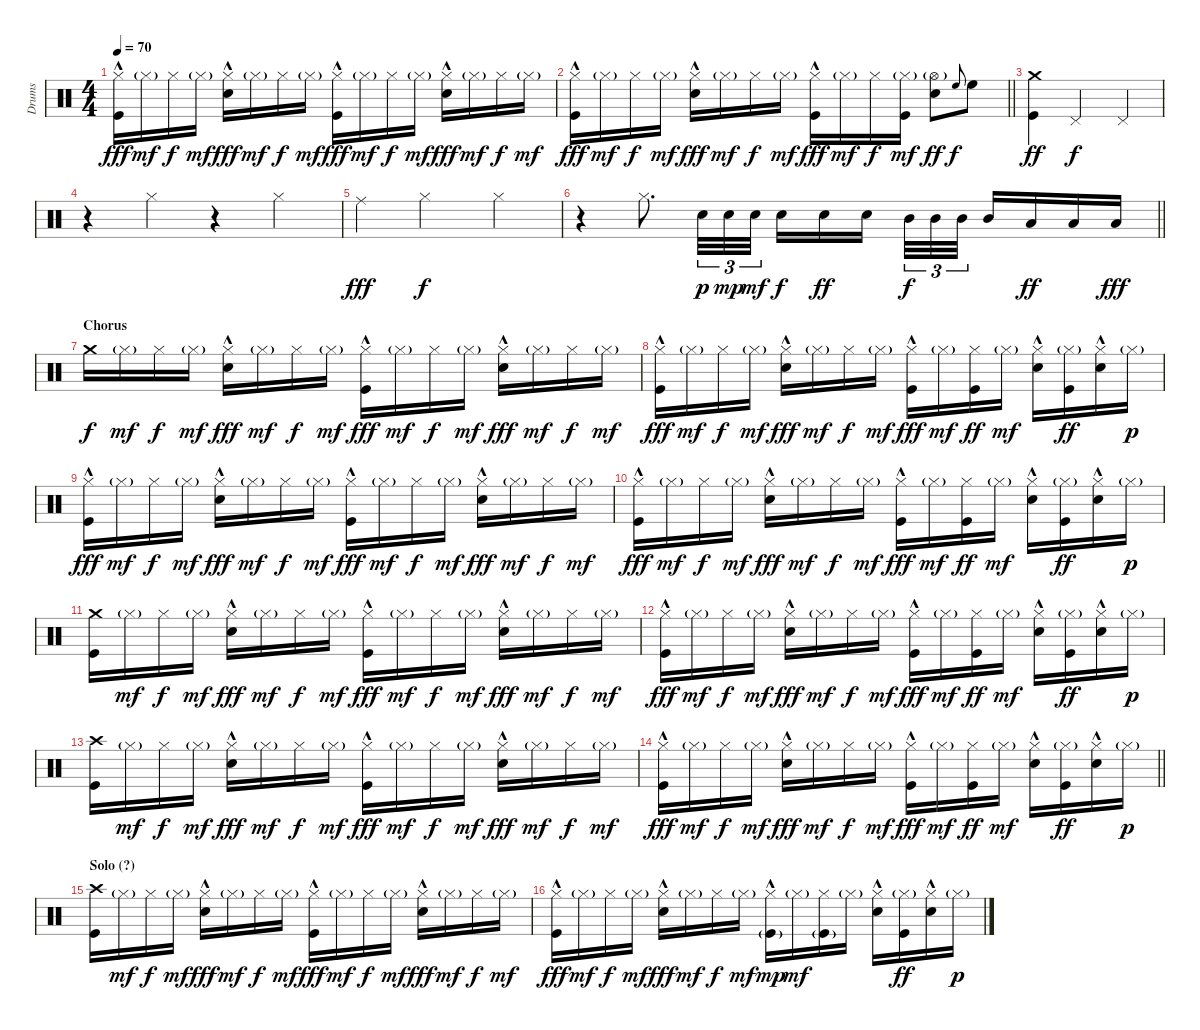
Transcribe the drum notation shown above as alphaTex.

\track ("Drums" "Drums") {instrument percussion}
\staff {score}
\articulation defaults
\ts (4 4)
\tempo 70
\clef neutral
\ks c
("Hi-Hat (closed)"{hac} "Kick (hit)").16{dy fff} "Hi-Hat (closed)"{g}.16{dy mf} "Hi-Hat (closed)".16{dy f} "Hi-Hat (closed)"{g}.16{dy mf} ("Hi-Hat (closed)"{hac} "Electric Snare (hit)").16{dy fff} "Hi-Hat (closed)"{g}.16{dy mf} "Hi-Hat (closed)".16{dy f} "Hi-Hat (closed)"{g}.16{dy mf} ("Hi-Hat (closed)"{hac} "Kick (hit)").16{dy fff} "Hi-Hat (closed)"{g}.16{dy mf} "Hi-Hat (closed)".16{dy f} "Hi-Hat (closed)"{g}.16{dy mf} ("Hi-Hat (closed)"{hac} "Electric Snare (hit)").16{dy fff} "Hi-Hat (closed)"{g}.16{dy mf} "Hi-Hat (closed)".16{dy f} "Hi-Hat (closed)"{g}.16{dy mf} |
\barLineRight lightlight
("Hi-Hat (closed)"{hac} "Kick (hit)").16{dy fff} "Hi-Hat (closed)"{g}.16{dy mf} "Hi-Hat (closed)".16{dy f} "Hi-Hat (closed)"{g}.16{dy mf} ("Hi-Hat (closed)"{hac} "Electric Snare (hit)").16{dy fff} "Hi-Hat (closed)"{g}.16{dy mf} "Hi-Hat (closed)".16{dy f} "Hi-Hat (closed)"{g}.16{dy mf} ("Hi-Hat (closed)"{hac} "Kick (hit)").16{dy fff} "Hi-Hat (closed)"{g}.16{dy mf} "Hi-Hat (closed)".16{dy f} ("Hi-Hat (closed)"{g} "Kick (hit)").16{dy mf volume 16} ("Hi-Hat (open)"{g} "Electric Snare (hit)").8{dy ff} "High Floor Tom (hit)".8{gr onbeat dy f} "High Floor Tom (hit)".8 |
\section ("" "")
("Crash medium (hit)" "Kick (hit)").4{dy ff volume 14} "Pedal Hi-Hat (hit)".2{dy f} "Pedal Hi-Hat (hit)".4 |
r.4 "Hi-Hat (closed)".4 r.4 "Hi-Hat (closed)".4 |
"Ride (middle)".4{dy fff} "Hi-Hat (closed)".2{dy f} "Hi-Hat (closed)".4 |
\barLineRight lightlight
r.4 "Hi-Hat (closed)".8{d} "Electric Snare (hit)".32{tu (3 2) dy p volume 16} "Electric Snare (hit)".32{tu (3 2) dy mp} "Electric Snare (hit)".32{tu (3 2) dy mf} "Electric Snare (hit)".16{dy f} "Electric Snare (hit)".16{dy ff} "Electric Snare (hit)".16{beam splitsecondary} "Mid Tom (hit)".32{tu (3 2) dy f} "Mid Tom (hit)".32{tu (3 2)} "Mid Tom (hit)".32{tu (3 2)} "Mid Tom (hit)".16 "Low Tom (hit)".16{dy ff} "Low Tom (hit)".16 "Low Tom (hit)".16{dy fff} |
\section ("" "Chorus")
"Crash medium (hit)".16{dy f volume 14} "Hi-Hat (closed)"{g}.16{dy mf} "Hi-Hat (closed)".16{dy f} "Hi-Hat (closed)"{g}.16{dy mf} ("Hi-Hat (closed)"{hac} "Electric Snare (hit)").16{dy fff} "Hi-Hat (closed)"{g}.16{dy mf} "Hi-Hat (closed)".16{dy f} "Hi-Hat (closed)"{g}.16{dy mf} ("Hi-Hat (closed)"{hac} "Kick (hit)").16{dy fff} "Hi-Hat (closed)"{g}.16{dy mf} "Hi-Hat (closed)".16{dy f} "Hi-Hat (closed)"{g}.16{dy mf} ("Hi-Hat (closed)"{hac} "Electric Snare (hit)").16{dy fff} "Hi-Hat (closed)"{g}.16{dy mf} "Hi-Hat (closed)".16{dy f} "Hi-Hat (closed)"{g}.16{dy mf} |
("Hi-Hat (closed)"{hac} "Kick (hit)").16{dy fff} "Hi-Hat (closed)"{g}.16{dy mf} "Hi-Hat (closed)".16{dy f} "Hi-Hat (closed)"{g}.16{dy mf} ("Hi-Hat (closed)"{hac} "Electric Snare (hit)").16{dy fff} "Hi-Hat (closed)"{g}.16{dy mf} "Hi-Hat (closed)".16{dy f} "Hi-Hat (closed)"{g}.16{dy mf} ("Hi-Hat (closed)"{hac} "Kick (hit)").16{dy fff} "Hi-Hat (closed)"{g}.16{dy mf} ("Hi-Hat (closed)" "Kick (hit)").16{dy ff} "Hi-Hat (closed)"{g}.16{dy mf} ("Hi-Hat (closed)"{hac} "Electric Snare (hit)").16 ("Hi-Hat (closed)"{g} "Kick (hit)").16{dy ff} ("Hi-Hat (closed)"{hac} "Electric Snare (hit)").16 "Hi-Hat (closed)"{g}.16{dy p} |
("Hi-Hat (closed)"{hac} "Kick (hit)").16{dy fff} "Hi-Hat (closed)"{g}.16{dy mf} "Hi-Hat (closed)".16{dy f} "Hi-Hat (closed)"{g}.16{dy mf} ("Hi-Hat (closed)"{hac} "Electric Snare (hit)").16{dy fff} "Hi-Hat (closed)"{g}.16{dy mf} "Hi-Hat (closed)".16{dy f} "Hi-Hat (closed)"{g}.16{dy mf} ("Hi-Hat (closed)"{hac} "Kick (hit)").16{dy fff} "Hi-Hat (closed)"{g}.16{dy mf} "Hi-Hat (closed)".16{dy f} "Hi-Hat (closed)"{g}.16{dy mf} ("Hi-Hat (closed)"{hac} "Electric Snare (hit)").16{dy fff} "Hi-Hat (closed)"{g}.16{dy mf} "Hi-Hat (closed)".16{dy f} "Hi-Hat (closed)"{g}.16{dy mf} |
("Hi-Hat (closed)"{hac} "Kick (hit)").16{dy fff} "Hi-Hat (closed)"{g}.16{dy mf} "Hi-Hat (closed)".16{dy f} "Hi-Hat (closed)"{g}.16{dy mf} ("Hi-Hat (closed)"{hac} "Electric Snare (hit)").16{dy fff} "Hi-Hat (closed)"{g}.16{dy mf} "Hi-Hat (closed)".16{dy f} "Hi-Hat (closed)"{g}.16{dy mf} ("Hi-Hat (closed)"{hac} "Kick (hit)").16{dy fff} "Hi-Hat (closed)"{g}.16{dy mf} ("Hi-Hat (closed)" "Kick (hit)").16{dy ff} "Hi-Hat (closed)"{g}.16{dy mf} ("Hi-Hat (closed)"{hac} "Electric Snare (hit)").16 ("Hi-Hat (closed)"{g} "Kick (hit)").16{dy ff} ("Hi-Hat (closed)"{hac} "Electric Snare (hit)").16 "Hi-Hat (closed)"{g}.16{dy p} |
("Crash medium (hit)" "Kick (hit)").16 "Hi-Hat (closed)"{g}.16{dy mf} "Hi-Hat (closed)".16{dy f} "Hi-Hat (closed)"{g}.16{dy mf} ("Hi-Hat (closed)"{hac} "Electric Snare (hit)").16{dy fff} "Hi-Hat (closed)"{g}.16{dy mf} "Hi-Hat (closed)".16{dy f} "Hi-Hat (closed)"{g}.16{dy mf} ("Hi-Hat (closed)"{hac} "Kick (hit)").16{dy fff} "Hi-Hat (closed)"{g}.16{dy mf} "Hi-Hat (closed)".16{dy f} "Hi-Hat (closed)"{g}.16{dy mf} ("Hi-Hat (closed)"{hac} "Electric Snare (hit)").16{dy fff} "Hi-Hat (closed)"{g}.16{dy mf} "Hi-Hat (closed)".16{dy f} "Hi-Hat (closed)"{g}.16{dy mf} |
("Hi-Hat (closed)"{hac} "Kick (hit)").16{dy fff} "Hi-Hat (closed)"{g}.16{dy mf} "Hi-Hat (closed)".16{dy f} "Hi-Hat (closed)"{g}.16{dy mf} ("Hi-Hat (closed)"{hac} "Electric Snare (hit)").16{dy fff} "Hi-Hat (closed)"{g}.16{dy mf} "Hi-Hat (closed)".16{dy f} "Hi-Hat (closed)"{g}.16{dy mf} ("Hi-Hat (closed)"{hac} "Kick (hit)").16{dy fff} "Hi-Hat (closed)"{g}.16{dy mf} ("Hi-Hat (closed)" "Kick (hit)").16{dy ff} "Hi-Hat (closed)"{g}.16{dy mf} ("Hi-Hat (closed)"{hac} "Electric Snare (hit)").16 ("Hi-Hat (closed)"{g} "Kick (hit)").16{dy ff} ("Hi-Hat (closed)"{hac} "Electric Snare (hit)").16 "Hi-Hat (closed)"{g}.16{dy p} |
("Crash high (hit)" "Kick (hit)").16 "Hi-Hat (closed)"{g}.16{dy mf} "Hi-Hat (closed)".16{dy f} "Hi-Hat (closed)"{g}.16{dy mf} ("Hi-Hat (closed)"{hac} "Electric Snare (hit)").16{dy fff} "Hi-Hat (closed)"{g}.16{dy mf} "Hi-Hat (closed)".16{dy f} "Hi-Hat (closed)"{g}.16{dy mf} ("Hi-Hat (closed)"{hac} "Kick (hit)").16{dy fff} "Hi-Hat (closed)"{g}.16{dy mf} "Hi-Hat (closed)".16{dy f} "Hi-Hat (closed)"{g}.16{dy mf} ("Hi-Hat (closed)"{hac} "Electric Snare (hit)").16{dy fff} "Hi-Hat (closed)"{g}.16{dy mf} "Hi-Hat (closed)".16{dy f} "Hi-Hat (closed)"{g}.16{dy mf} |
\barLineRight lightlight
("Hi-Hat (closed)"{hac} "Kick (hit)").16{dy fff} "Hi-Hat (closed)"{g}.16{dy mf} "Hi-Hat (closed)".16{dy f} "Hi-Hat (closed)"{g}.16{dy mf} ("Hi-Hat (closed)"{hac} "Electric Snare (hit)").16{dy fff} "Hi-Hat (closed)"{g}.16{dy mf} "Hi-Hat (closed)".16{dy f} "Hi-Hat (closed)"{g}.16{dy mf} ("Hi-Hat (closed)"{hac} "Kick (hit)").16{dy fff} "Hi-Hat (closed)"{g}.16{dy mf} ("Hi-Hat (closed)" "Kick (hit)").16{dy ff} "Hi-Hat (closed)"{g}.16{dy mf} ("Hi-Hat (closed)"{hac} "Electric Snare (hit)").16 ("Hi-Hat (closed)"{g} "Kick (hit)").16{dy ff} ("Hi-Hat (closed)"{hac} "Electric Snare (hit)").16 "Hi-Hat (closed)"{g}.16{dy p} |
\section ("" "Solo (?)")
("Crash high (hit)" "Kick (hit)").16 "Hi-Hat (closed)"{g}.16{dy mf} "Hi-Hat (closed)".16{dy f} "Hi-Hat (closed)"{g}.16{dy mf} ("Hi-Hat (closed)"{hac} "Electric Snare (hit)").16{dy fff} "Hi-Hat (closed)"{g}.16{dy mf} "Hi-Hat (closed)".16{dy f} "Hi-Hat (closed)"{g}.16{dy mf} ("Hi-Hat (closed)"{hac} "Kick (hit)").16{dy fff} "Hi-Hat (closed)"{g}.16{dy mf} "Hi-Hat (closed)".16{dy f} "Hi-Hat (closed)"{g}.16{dy mf} ("Hi-Hat (closed)"{hac} "Electric Snare (hit)").16{dy fff} "Hi-Hat (closed)"{g}.16{dy mf} "Hi-Hat (closed)".16{dy f} "Hi-Hat (closed)"{g}.16{dy mf} |
("Hi-Hat (closed)"{hac} "Kick (hit)").16{dy fff} "Hi-Hat (closed)"{g}.16{dy mf} "Hi-Hat (closed)".16{dy f} "Hi-Hat (closed)"{g}.16{dy mf} ("Hi-Hat (closed)"{hac} "Electric Snare (hit)").16{dy fff} "Hi-Hat (closed)"{g}.16{dy mf} "Hi-Hat (closed)".16{dy f} "Hi-Hat (closed)"{g}.16{dy mf} ("Hi-Hat (closed)"{hac} "Kick (hit)"{g}).16{dy mp} "Hi-Hat (closed)"{g}.16{dy mf} ("Hi-Hat (closed)" "Kick (hit)"{g}).16 "Hi-Hat (closed)"{g}.16 ("Hi-Hat (closed)"{hac} "Electric Snare (hit)").16 ("Hi-Hat (closed)"{g} "Kick (hit)").16{dy ff} ("Hi-Hat (closed)"{hac} "Electric Snare (hit)").16 "Hi-Hat (closed)"{g}.16{dy p}
